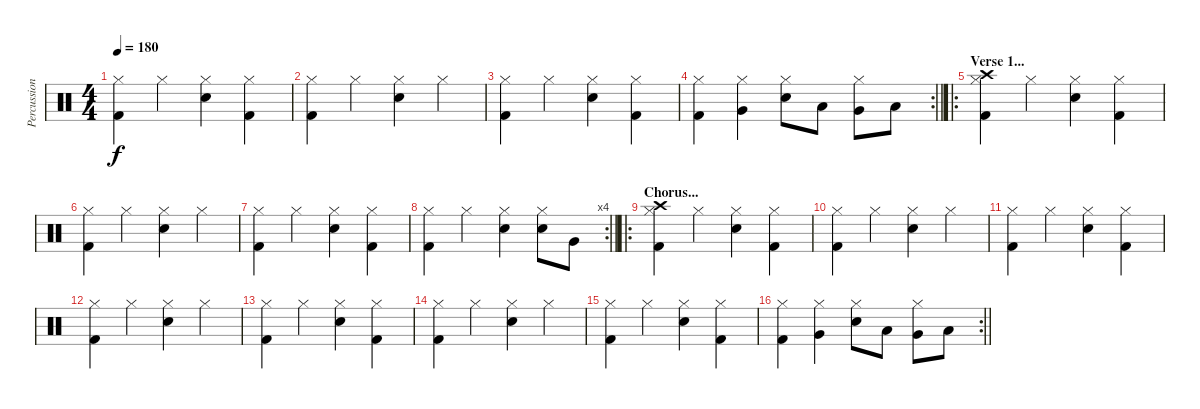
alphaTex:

\track ("Percussion" "Percussion") {instrument percussion}
\staff {score}
\articulation defaults
\ts (4 4)
\tempo 180
\clef neutral
\ks c
("Kick (hit) 2" "Hi-Hat (closed)").4{dy f} "Hi-Hat (closed)".4 ("Snare (hit) 2" "Hi-Hat (closed)").4 ("Kick (hit) 2" "Hi-Hat (closed)").4 |
("Kick (hit) 2" "Hi-Hat (closed)").4 "Hi-Hat (closed)".4 ("Snare (hit) 2" "Hi-Hat (closed)").4 "Hi-Hat (closed)".4 |
("Kick (hit) 2" "Hi-Hat (closed)").4 "Hi-Hat (closed)".4 ("Snare (hit) 2" "Hi-Hat (closed)").4 ("Kick (hit) 2" "Hi-Hat (closed)").4 |
\rc 2
\barLineRight lightlight
("Kick (hit) 2" "Hi-Hat (closed)").4 ("Very Low Tom (hit)" "Hi-Hat (closed)").4 ("Snare (hit) 2" "Hi-Hat (closed)").8 "Low Tom (hit)".8 ("Very Low Tom (hit)" "Hi-Hat (closed)").8 "Low Floor Tom (hit)".8 |
\ro
\section ("" "Verse 1...")
("Kick (hit) 2" "Crash high (hit)" "Hi-Hat (closed)").4 "Hi-Hat (closed)".4 ("Snare (hit) 2" "Hi-Hat (closed)").4 ("Kick (hit) 2" "Hi-Hat (closed)").4 |
("Kick (hit) 2" "Hi-Hat (closed)").4 "Hi-Hat (closed)".4 ("Snare (hit) 2" "Hi-Hat (closed)").4 "Hi-Hat (closed)".4 |
("Kick (hit) 2" "Hi-Hat (closed)").4 "Hi-Hat (closed)".4 ("Snare (hit) 2" "Hi-Hat (closed)").4 ("Kick (hit) 2" "Hi-Hat (closed)").4 |
\rc 4
\barLineRight lightlight
("Kick (hit) 2" "Hi-Hat (closed)").4 "Hi-Hat (closed)".4 ("Snare (hit) 2" "Hi-Hat (closed)").4 ("Snare (hit) 2" "Hi-Hat (closed)").8 "Very Low Tom (hit)".8 |
\ro
\section ("" "Chorus...")
("Kick (hit) 2" "Crash high (hit)" "Hi-Hat (closed)").4 "Hi-Hat (closed)".4 ("Snare (hit) 2" "Hi-Hat (closed)").4 ("Kick (hit) 2" "Hi-Hat (closed)").4 |
("Kick (hit) 2" "Hi-Hat (closed)").4 "Hi-Hat (closed)".4 ("Snare (hit) 2" "Hi-Hat (closed)").4 "Hi-Hat (closed)".4 |
("Kick (hit) 2" "Hi-Hat (closed)").4 "Hi-Hat (closed)".4 ("Snare (hit) 2" "Hi-Hat (closed)").4 ("Kick (hit) 2" "Hi-Hat (closed)").4 |
("Kick (hit) 2" "Hi-Hat (closed)").4 "Hi-Hat (closed)".4 ("Snare (hit) 2" "Hi-Hat (closed)").4 "Hi-Hat (closed)".4 |
("Kick (hit) 2" "Hi-Hat (closed)").4 "Hi-Hat (closed)".4 ("Snare (hit) 2" "Hi-Hat (closed)").4 ("Kick (hit) 2" "Hi-Hat (closed)").4 |
("Kick (hit) 2" "Hi-Hat (closed)").4 "Hi-Hat (closed)".4 ("Snare (hit) 2" "Hi-Hat (closed)").4 "Hi-Hat (closed)".4 |
("Kick (hit) 2" "Hi-Hat (closed)").4 "Hi-Hat (closed)".4 ("Snare (hit) 2" "Hi-Hat (closed)").4 ("Kick (hit) 2" "Hi-Hat (closed)").4 |
\rc 2
\barLineRight lightlight
("Kick (hit) 2" "Hi-Hat (closed)").4 ("Very Low Tom (hit)" "Hi-Hat (closed)").4 ("Snare (hit) 2" "Hi-Hat (closed)").8 "Low Tom (hit)".8 ("Very Low Tom (hit)" "Hi-Hat (closed)").8 "Low Floor Tom (hit)".8
